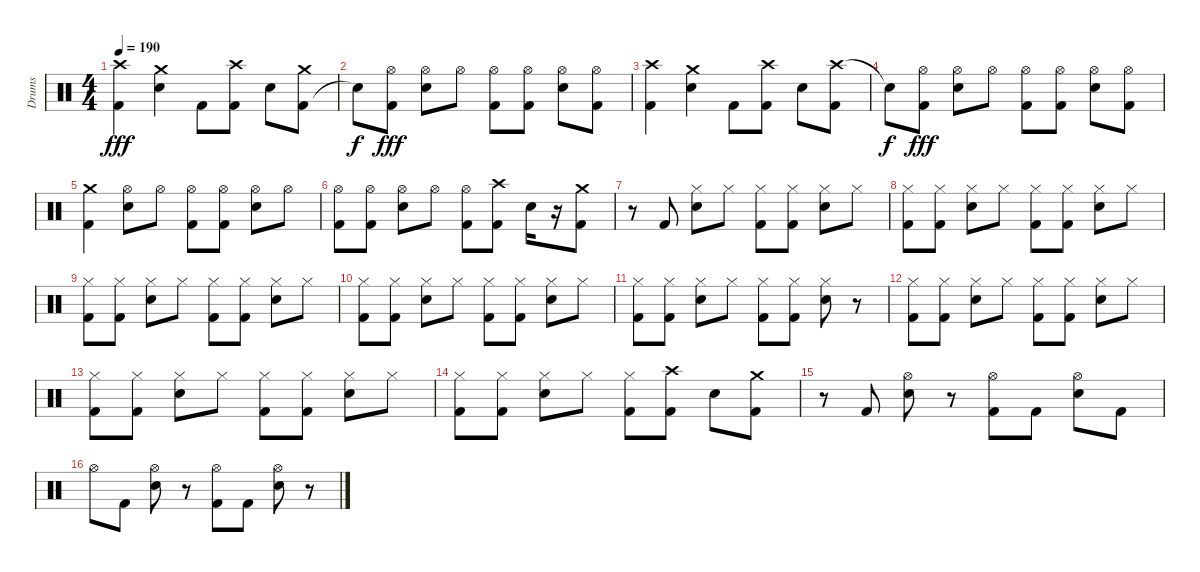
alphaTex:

\track ("Drums" "Drums") {instrument percussion}
\staff {score}
\articulation defaults
\ts (4 4)
\tempo 190
\clef neutral
\ks c
("Kick (hit) 2" "Crash high (hit)").4{dy fff} ("Electric Snare (hit)" "Crash medium (hit)").4 "Kick (hit) 2".8 ("Crash high (hit)" "Kick (hit) 2").8 "Electric Snare (hit)".8 ("Kick (hit) 2" "Crash medium (hit)").8 |
"Snare (hit)"{t}.8{dy f} ("Hi-Hat (open)" "Kick (hit) 2").8{dy fff} ("Hi-Hat (open)" "Electric Snare (hit)").8 "Hi-Hat (open)".8 ("Hi-Hat (open)" "Kick (hit) 2").8 ("Hi-Hat (open)" "Kick (hit) 2").8 ("Electric Snare (hit)" "Hi-Hat (open)").8 ("Kick (hit) 2" "Hi-Hat (open)").8 |
("Crash high (hit)" "Kick (hit) 2").4 ("Electric Snare (hit)" "Crash medium (hit)").4 "Kick (hit) 2".8 ("Crash high (hit)" "Kick (hit) 2").8 "Electric Snare (hit)".8 ("Crash high (hit)" "Kick (hit) 2").8 |
"Snare (hit)"{t}.8{dy f} ("Hi-Hat (open)" "Kick (hit) 2").8{dy fff} ("Electric Snare (hit)" "Hi-Hat (open)").8 "Hi-Hat (open)".8 ("Hi-Hat (open)" "Kick (hit) 2").8 ("Kick (hit) 2" "Hi-Hat (open)").8 ("Electric Snare (hit)" "Hi-Hat (open)").8 ("Hi-Hat (open)" "Kick (hit) 2").8 |
("Kick (hit) 2" "Crash medium (hit)").4 ("Hi-Hat (open)" "Electric Snare (hit)").8 "Hi-Hat (open)".8 ("Hi-Hat (open)" "Kick (hit) 2").8 ("Hi-Hat (open)" "Kick (hit) 2").8 ("Electric Snare (hit)" "Hi-Hat (open)").8 "Hi-Hat (open)".8 |
("Hi-Hat (open)" "Kick (hit) 2").8 ("Kick (hit) 2" "Hi-Hat (open)").8 ("Electric Snare (hit)" "Hi-Hat (open)").8 "Hi-Hat (open)".8 ("Hi-Hat (open)" "Kick (hit) 2").8 ("Crash high (hit)" "Kick (hit) 2").8 "Electric Snare (hit)".16 r.16 ("Crash medium (hit)" "Kick (hit) 2").8 |
r.8 "Kick (hit) 2".8 ("Electric Snare (hit)" "Hi-Hat (closed)").8 "Hi-Hat (closed)".8 ("Kick (hit) 2" "Hi-Hat (closed)").8 ("Kick (hit) 2" "Hi-Hat (closed)").8 ("Electric Snare (hit)" "Hi-Hat (closed)").8 "Hi-Hat (closed)".8 |
("Kick (hit) 2" "Hi-Hat (closed)").8 ("Kick (hit) 2" "Hi-Hat (closed)").8 ("Electric Snare (hit)" "Hi-Hat (closed)").8 "Hi-Hat (closed)".8 ("Kick (hit) 2" "Hi-Hat (closed)").8 ("Kick (hit) 2" "Hi-Hat (closed)").8 ("Electric Snare (hit)" "Hi-Hat (closed)").8 "Hi-Hat (closed)".8 |
("Hi-Hat (closed)" "Kick (hit) 2").8 ("Hi-Hat (closed)" "Kick (hit) 2").8 ("Hi-Hat (closed)" "Electric Snare (hit)").8 "Hi-Hat (closed)".8 ("Hi-Hat (closed)" "Kick (hit) 2").8 ("Hi-Hat (closed)" "Kick (hit) 2").8 ("Hi-Hat (closed)" "Electric Snare (hit)").8 "Hi-Hat (closed)".8 |
("Hi-Hat (closed)" "Kick (hit) 2").8 ("Hi-Hat (closed)" "Kick (hit) 2").8 ("Hi-Hat (closed)" "Electric Snare (hit)").8 "Hi-Hat (closed)".8 ("Hi-Hat (closed)" "Kick (hit) 2").8 ("Hi-Hat (closed)" "Kick (hit) 2").8 ("Hi-Hat (closed)" "Electric Snare (hit)").8 "Hi-Hat (closed)".8 |
("Hi-Hat (closed)" "Kick (hit) 2").8 ("Hi-Hat (closed)" "Kick (hit) 2").8 ("Hi-Hat (closed)" "Electric Snare (hit)").8 "Hi-Hat (closed)".8 ("Hi-Hat (closed)" "Kick (hit) 2").8 ("Hi-Hat (closed)" "Kick (hit) 2").8 ("Hi-Hat (closed)" "Electric Snare (hit)").8 r.8 |
("Kick (hit) 2" "Hi-Hat (closed)").8 ("Kick (hit) 2" "Hi-Hat (closed)").8 ("Electric Snare (hit)" "Hi-Hat (closed)").8 "Hi-Hat (closed)".8 ("Kick (hit) 2" "Hi-Hat (closed)").8 ("Kick (hit) 2" "Hi-Hat (closed)").8 ("Electric Snare (hit)" "Hi-Hat (closed)").8 "Hi-Hat (closed)".8 |
("Kick (hit) 2" "Hi-Hat (closed)").8 ("Kick (hit) 2" "Hi-Hat (closed)").8 ("Electric Snare (hit)" "Hi-Hat (closed)").8 "Hi-Hat (closed)".8 ("Kick (hit) 2" "Hi-Hat (closed)").8 ("Kick (hit) 2" "Hi-Hat (closed)").8 ("Electric Snare (hit)" "Hi-Hat (closed)").8 "Hi-Hat (closed)".8 |
("Kick (hit) 2" "Hi-Hat (closed)").8 ("Kick (hit) 2" "Hi-Hat (closed)").8 ("Electric Snare (hit)" "Hi-Hat (closed)").8 "Hi-Hat (closed)".8 ("Kick (hit) 2" "Hi-Hat (closed)").8 ("Crash high (hit)" "Kick (hit) 2").8 "Electric Snare (hit)".8 ("Crash medium (hit)" "Kick (hit) 2").8 |
r.8 "Kick (hit) 2".8 ("Hi-Hat (open)" "Electric Snare (hit)").8 r.8 ("Hi-Hat (open)" "Kick (hit) 2").8 "Kick (hit) 2".8 ("Hi-Hat (open)" "Electric Snare (hit)").8 "Kick (hit) 2".8 |
"Hi-Hat (open)".8 "Kick (hit) 2".8 ("Hi-Hat (open)" "Electric Snare (hit)").8 r.8 ("Hi-Hat (open)" "Kick (hit) 2").8 "Kick (hit) 2".8 ("Hi-Hat (open)" "Electric Snare (hit)").8 r.8
